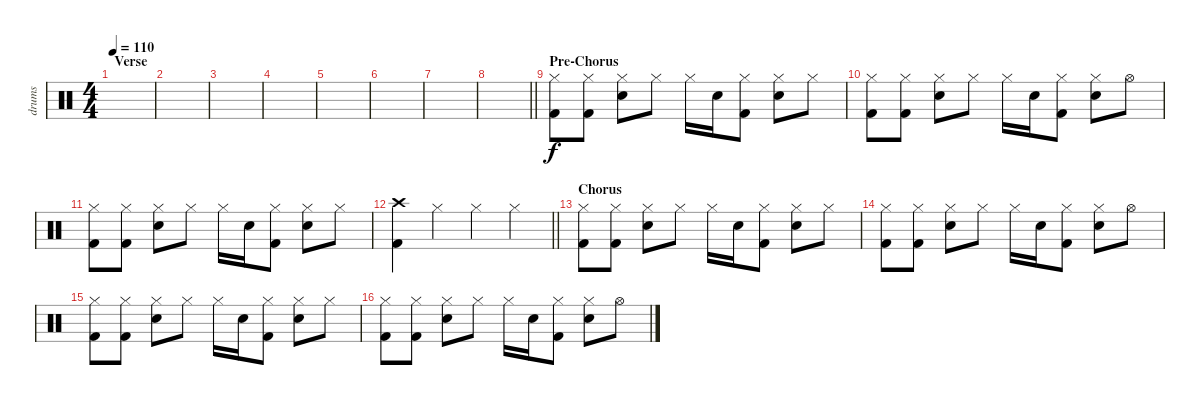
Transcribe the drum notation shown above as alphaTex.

\track ("drums" "drums") {instrument percussion}
\staff {score}
\articulation defaults
\ts (4 4)
\section ("" "Verse")
\tempo 110
\clef neutral
\ks c
|
|
|
|
|
|
|
\barLineRight lightlight
|
\section ("" "Pre-Chorus")
("Hi-Hat (closed)" "Kick (hit) 2").8 ("Hi-Hat (closed)" "Kick (hit) 2").8 ("Hi-Hat (closed)" "Electric Snare (hit)").8 "Hi-Hat (closed)".8 "Hi-Hat (closed)".16 "Electric Snare (hit)".16 ("Hi-Hat (closed)" "Kick (hit) 2").8 ("Hi-Hat (closed)" "Electric Snare (hit)").8 "Hi-Hat (closed)".8 |
("Hi-Hat (closed)" "Kick (hit) 2").8 ("Hi-Hat (closed)" "Kick (hit) 2").8 ("Hi-Hat (closed)" "Electric Snare (hit)").8 "Hi-Hat (closed)".8 "Hi-Hat (closed)".16 "Electric Snare (hit)".16 ("Hi-Hat (closed)" "Kick (hit) 2").8 ("Hi-Hat (closed)" "Electric Snare (hit)").8 "Hi-Hat (open)".8 |
("Hi-Hat (closed)" "Kick (hit) 2").8 ("Hi-Hat (closed)" "Kick (hit) 2").8 ("Hi-Hat (closed)" "Electric Snare (hit)").8 "Hi-Hat (closed)".8 "Hi-Hat (closed)".16 "Electric Snare (hit)".16 ("Hi-Hat (closed)" "Kick (hit) 2").8 ("Hi-Hat (closed)" "Electric Snare (hit)").8 "Hi-Hat (closed)".8 |
\barLineRight lightlight
("Crash high (hit)" "Kick (hit) 2").4 "Hi-Hat (closed)".4 "Hi-Hat (closed)".4 "Hi-Hat (closed)".4 |
\section ("" "Chorus")
("Hi-Hat (closed)" "Kick (hit) 2").8 ("Hi-Hat (closed)" "Kick (hit) 2").8 ("Hi-Hat (closed)" "Electric Snare (hit)").8 "Hi-Hat (closed)".8 "Hi-Hat (closed)".16 "Electric Snare (hit)".16 ("Hi-Hat (closed)" "Kick (hit) 2").8 ("Hi-Hat (closed)" "Electric Snare (hit)").8 "Hi-Hat (closed)".8 |
("Hi-Hat (closed)" "Kick (hit) 2").8 ("Hi-Hat (closed)" "Kick (hit) 2").8 ("Hi-Hat (closed)" "Electric Snare (hit)").8 "Hi-Hat (closed)".8 "Hi-Hat (closed)".16 "Electric Snare (hit)".16 ("Hi-Hat (closed)" "Kick (hit) 2").8 ("Hi-Hat (closed)" "Electric Snare (hit)").8 "Hi-Hat (open)".8 |
("Hi-Hat (closed)" "Kick (hit) 2").8 ("Hi-Hat (closed)" "Kick (hit) 2").8 ("Hi-Hat (closed)" "Electric Snare (hit)").8 "Hi-Hat (closed)".8 "Hi-Hat (closed)".16 "Electric Snare (hit)".16 ("Hi-Hat (closed)" "Kick (hit) 2").8 ("Hi-Hat (closed)" "Electric Snare (hit)").8 "Hi-Hat (closed)".8 |
("Hi-Hat (closed)" "Kick (hit) 2").8 ("Hi-Hat (closed)" "Kick (hit) 2").8 ("Hi-Hat (closed)" "Electric Snare (hit)").8 "Hi-Hat (closed)".8 "Hi-Hat (closed)".16 "Electric Snare (hit)".16 ("Hi-Hat (closed)" "Kick (hit) 2").8 ("Hi-Hat (closed)" "Electric Snare (hit)").8 "Hi-Hat (open)".8
